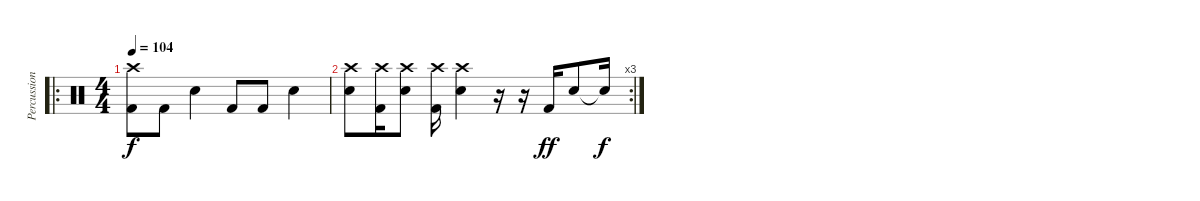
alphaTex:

\track ("Percussion" "Percussion") {instrument percussion}
\staff {score}
\articulation defaults
\ro
\ts (4 4)
\tempo 104
\clef neutral
\ks c
("Crash high (hit)" "Kick (hit) 2").8{dy f} "Kick (hit) 2".8 "Electric Snare (hit)".4 "Kick (hit) 2".8 "Kick (hit) 2".8 "Electric Snare (hit)".4 |
\rc 3
("Crash high (hit)" "Electric Snare (hit)").8 ("Crash high (hit)" "Kick (hit) 2").16 ("Crash high (hit)" "Electric Snare (hit)").8 ("Crash high (hit)" "Kick (hit) 2").16 ("Crash high (hit)" "Electric Snare (hit)").4 r.16 r.16 "Kick (hit) 2".16{dy ff} "Electric Snare (hit)".8 "Snare (hit)"{t}.16{dy f}
